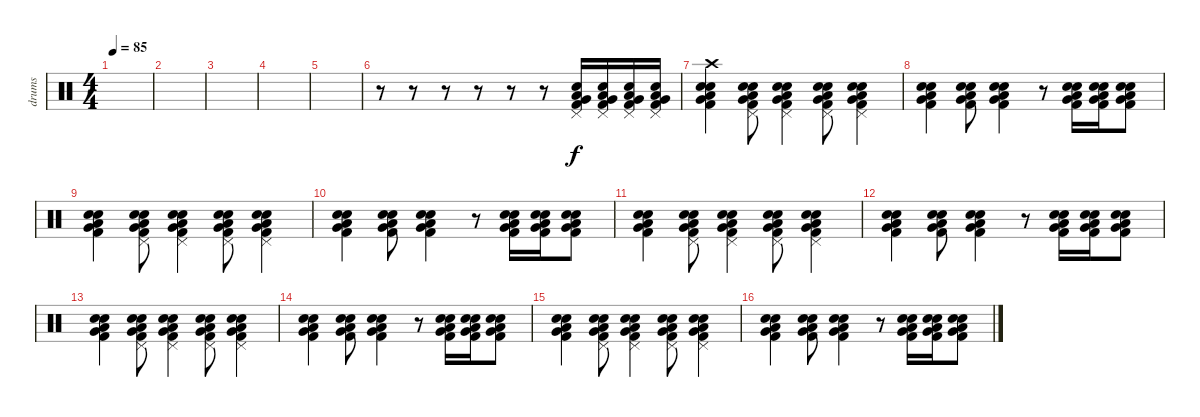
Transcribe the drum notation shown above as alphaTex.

\track ("drums" "drums") {instrument percussion}
\staff {score}
\articulation defaults
\ts (4 4)
\tempo 85
\clef neutral
\ks c
|
|
|
|
|
r.8 r.8 r.8 r.8 r.8 r.8 ("Electric Snare (hit)" "Pedal Hi-Hat (hit)" "Kick (hit) 2" "Low Floor Tom (hit)" "Very Low Tom (hit)").16 ("Electric Snare (hit)" "Pedal Hi-Hat (hit)" "Kick (hit) 2" "Low Floor Tom (hit)" "Very Low Tom (hit)").16 ("Electric Snare (hit)" "Pedal Hi-Hat (hit)" "Kick (hit) 2" "Low Floor Tom (hit)" "Very Low Tom (hit)").16 ("Electric Snare (hit)" "Pedal Hi-Hat (hit)" "Kick (hit) 2" "Low Floor Tom (hit)" "Very Low Tom (hit)").16 |
("Electric Snare (hit)" "Snare (hit) 2" "Kick (hit) 2" "Very Low Tom (hit)" "Low Floor Tom (hit)" "Crash high (hit)").4 ("Electric Snare (hit)" "Snare (hit) 2" "Kick (hit) 2" "Very Low Tom (hit)" "Low Floor Tom (hit)" "Pedal Hi-Hat (hit)").8 ("Electric Snare (hit)" "Snare (hit) 2" "Kick (hit) 2" "Very Low Tom (hit)" "Low Floor Tom (hit)" "Pedal Hi-Hat (hit)").4 ("Electric Snare (hit)" "Snare (hit) 2" "Kick (hit) 2" "Very Low Tom (hit)" "Low Floor Tom (hit)" "Pedal Hi-Hat (hit)").8 ("Electric Snare (hit)" "Snare (hit) 2" "Kick (hit) 2" "Very Low Tom (hit)" "Low Floor Tom (hit)" "Pedal Hi-Hat (hit)").4 |
("Electric Snare (hit)" "Snare (hit) 2" "Very Low Tom (hit)" "Kick (hit) 2" "Low Floor Tom (hit)").4 ("Snare (hit) 2" "Electric Snare (hit)" "Very Low Tom (hit)" "Kick (hit) 2" "Low Floor Tom (hit)").8 ("Snare (hit) 2" "Electric Snare (hit)" "Very Low Tom (hit)" "Kick (hit) 2" "Low Floor Tom (hit)").4 r.8 ("Snare (hit) 2" "Electric Snare (hit)" "Very Low Tom (hit)" "Kick (hit) 2" "Low Floor Tom (hit)").16 ("Snare (hit) 2" "Electric Snare (hit)" "Very Low Tom (hit)" "Kick (hit) 2" "Low Floor Tom (hit)").16 ("Snare (hit) 2" "Electric Snare (hit)" "Very Low Tom (hit)" "Kick (hit) 2" "Low Floor Tom (hit)").8 |
("Electric Snare (hit)" "Snare (hit) 2" "Kick (hit) 2" "Very Low Tom (hit)" "Low Floor Tom (hit)").4 ("Electric Snare (hit)" "Snare (hit) 2" "Kick (hit) 2" "Very Low Tom (hit)" "Low Floor Tom (hit)" "Pedal Hi-Hat (hit)").8 ("Electric Snare (hit)" "Snare (hit) 2" "Kick (hit) 2" "Very Low Tom (hit)" "Low Floor Tom (hit)" "Pedal Hi-Hat (hit)").4 ("Electric Snare (hit)" "Snare (hit) 2" "Kick (hit) 2" "Very Low Tom (hit)" "Low Floor Tom (hit)" "Pedal Hi-Hat (hit)").8 ("Electric Snare (hit)" "Snare (hit) 2" "Kick (hit) 2" "Very Low Tom (hit)" "Low Floor Tom (hit)" "Pedal Hi-Hat (hit)").4 |
("Electric Snare (hit)" "Snare (hit) 2" "Very Low Tom (hit)" "Kick (hit) 2" "Low Floor Tom (hit)").4 ("Snare (hit) 2" "Electric Snare (hit)" "Very Low Tom (hit)" "Kick (hit) 2" "Low Floor Tom (hit)").8 ("Snare (hit) 2" "Electric Snare (hit)" "Very Low Tom (hit)" "Kick (hit) 2" "Low Floor Tom (hit)").4 r.8 ("Snare (hit) 2" "Electric Snare (hit)" "Very Low Tom (hit)" "Kick (hit) 2" "Low Floor Tom (hit)").16 ("Snare (hit) 2" "Electric Snare (hit)" "Very Low Tom (hit)" "Kick (hit) 2" "Low Floor Tom (hit)").16 ("Snare (hit) 2" "Electric Snare (hit)" "Very Low Tom (hit)" "Kick (hit) 2" "Low Floor Tom (hit)").8 |
("Electric Snare (hit)" "Snare (hit) 2" "Kick (hit) 2" "Very Low Tom (hit)" "Low Floor Tom (hit)").4 ("Electric Snare (hit)" "Snare (hit) 2" "Kick (hit) 2" "Very Low Tom (hit)" "Low Floor Tom (hit)" "Pedal Hi-Hat (hit)").8 ("Electric Snare (hit)" "Snare (hit) 2" "Kick (hit) 2" "Very Low Tom (hit)" "Low Floor Tom (hit)" "Pedal Hi-Hat (hit)").4 ("Electric Snare (hit)" "Snare (hit) 2" "Kick (hit) 2" "Very Low Tom (hit)" "Low Floor Tom (hit)" "Pedal Hi-Hat (hit)").8 ("Electric Snare (hit)" "Snare (hit) 2" "Kick (hit) 2" "Very Low Tom (hit)" "Low Floor Tom (hit)" "Pedal Hi-Hat (hit)").4 |
("Electric Snare (hit)" "Snare (hit) 2" "Very Low Tom (hit)" "Kick (hit) 2" "Low Floor Tom (hit)").4 ("Snare (hit) 2" "Electric Snare (hit)" "Very Low Tom (hit)" "Kick (hit) 2" "Low Floor Tom (hit)").8 ("Snare (hit) 2" "Electric Snare (hit)" "Very Low Tom (hit)" "Kick (hit) 2" "Low Floor Tom (hit)").4 r.8 ("Snare (hit) 2" "Electric Snare (hit)" "Very Low Tom (hit)" "Kick (hit) 2" "Low Floor Tom (hit)").16 ("Snare (hit) 2" "Electric Snare (hit)" "Very Low Tom (hit)" "Kick (hit) 2" "Low Floor Tom (hit)").16 ("Snare (hit) 2" "Electric Snare (hit)" "Very Low Tom (hit)" "Kick (hit) 2" "Low Floor Tom (hit)").8 |
("Electric Snare (hit)" "Snare (hit) 2" "Kick (hit) 2" "Very Low Tom (hit)" "Low Floor Tom (hit)").4 ("Electric Snare (hit)" "Snare (hit) 2" "Kick (hit) 2" "Very Low Tom (hit)" "Low Floor Tom (hit)" "Pedal Hi-Hat (hit)").8 ("Electric Snare (hit)" "Snare (hit) 2" "Kick (hit) 2" "Very Low Tom (hit)" "Low Floor Tom (hit)" "Pedal Hi-Hat (hit)").4 ("Electric Snare (hit)" "Snare (hit) 2" "Kick (hit) 2" "Very Low Tom (hit)" "Low Floor Tom (hit)" "Pedal Hi-Hat (hit)").8 ("Electric Snare (hit)" "Snare (hit) 2" "Kick (hit) 2" "Very Low Tom (hit)" "Low Floor Tom (hit)" "Pedal Hi-Hat (hit)").4 |
("Electric Snare (hit)" "Snare (hit) 2" "Very Low Tom (hit)" "Kick (hit) 2" "Low Floor Tom (hit)").4 ("Snare (hit) 2" "Electric Snare (hit)" "Very Low Tom (hit)" "Kick (hit) 2" "Low Floor Tom (hit)").8 ("Snare (hit) 2" "Electric Snare (hit)" "Very Low Tom (hit)" "Kick (hit) 2" "Low Floor Tom (hit)").4 r.8 ("Snare (hit) 2" "Electric Snare (hit)" "Very Low Tom (hit)" "Kick (hit) 2" "Low Floor Tom (hit)").16 ("Snare (hit) 2" "Electric Snare (hit)" "Very Low Tom (hit)" "Kick (hit) 2" "Low Floor Tom (hit)").16 ("Snare (hit) 2" "Electric Snare (hit)" "Very Low Tom (hit)" "Kick (hit) 2" "Low Floor Tom (hit)").8 |
("Electric Snare (hit)" "Snare (hit) 2" "Kick (hit) 2" "Very Low Tom (hit)" "Low Floor Tom (hit)").4 ("Electric Snare (hit)" "Snare (hit) 2" "Kick (hit) 2" "Very Low Tom (hit)" "Low Floor Tom (hit)" "Pedal Hi-Hat (hit)").8 ("Electric Snare (hit)" "Snare (hit) 2" "Kick (hit) 2" "Very Low Tom (hit)" "Low Floor Tom (hit)" "Pedal Hi-Hat (hit)").4 ("Electric Snare (hit)" "Snare (hit) 2" "Kick (hit) 2" "Very Low Tom (hit)" "Low Floor Tom (hit)" "Pedal Hi-Hat (hit)").8 ("Electric Snare (hit)" "Snare (hit) 2" "Kick (hit) 2" "Very Low Tom (hit)" "Low Floor Tom (hit)" "Pedal Hi-Hat (hit)").4 |
("Electric Snare (hit)" "Snare (hit) 2" "Very Low Tom (hit)" "Kick (hit) 2" "Low Floor Tom (hit)").4 ("Snare (hit) 2" "Electric Snare (hit)" "Very Low Tom (hit)" "Kick (hit) 2" "Low Floor Tom (hit)").8 ("Snare (hit) 2" "Electric Snare (hit)" "Very Low Tom (hit)" "Kick (hit) 2" "Low Floor Tom (hit)").4 r.8 ("Snare (hit) 2" "Electric Snare (hit)" "Very Low Tom (hit)" "Kick (hit) 2" "Low Floor Tom (hit)").16 ("Snare (hit) 2" "Electric Snare (hit)" "Very Low Tom (hit)" "Kick (hit) 2" "Low Floor Tom (hit)").16 ("Snare (hit) 2" "Electric Snare (hit)" "Very Low Tom (hit)" "Kick (hit) 2" "Low Floor Tom (hit)").8
